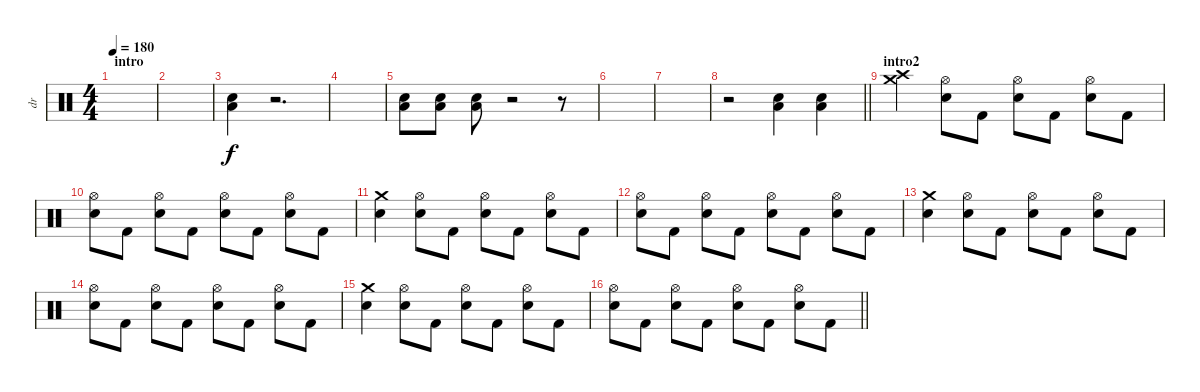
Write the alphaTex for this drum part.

\track ("dr" "dr") {instrument percussion}
\staff {score}
\articulation defaults
\ts (4 4)
\section ("" "intro")
\tempo 180
\clef neutral
\ks c
|
|
("Low Tom (hit)" "Electric Snare (hit)").4 r.2{d} |
|
("Low Tom (hit)" "Electric Snare (hit)").8 ("Low Tom (hit)" "Electric Snare (hit)").8 ("Low Tom (hit)" "Electric Snare (hit)").8 r.2 r.8 |
|
|
\barLineRight lightlight
r.2 ("Low Tom (hit)" "Electric Snare (hit)").4 ("Low Tom (hit)" "Electric Snare (hit)").4 |
\section ("" "intro2")
("Crash high (hit)" "Crash medium (hit)").4 ("Hi-Hat (open)" "Electric Snare (hit)").8 "Kick (hit) 2".8 ("Hi-Hat (open)" "Electric Snare (hit)").8 "Kick (hit) 2".8 ("Hi-Hat (open)" "Electric Snare (hit)").8 "Kick (hit) 2".8 |
("Hi-Hat (open)" "Electric Snare (hit)").8 "Kick (hit) 2".8 ("Hi-Hat (open)" "Electric Snare (hit)").8 "Kick (hit) 2".8 ("Hi-Hat (open)" "Electric Snare (hit)").8 "Kick (hit) 2".8 ("Hi-Hat (open)" "Electric Snare (hit)").8 "Kick (hit) 2".8 |
("Crash medium (hit)" "Electric Snare (hit)").4 ("Hi-Hat (open)" "Electric Snare (hit)").8 "Kick (hit) 2".8 ("Hi-Hat (open)" "Electric Snare (hit)").8 "Kick (hit) 2".8 ("Hi-Hat (open)" "Electric Snare (hit)").8 "Kick (hit) 2".8 |
("Hi-Hat (open)" "Electric Snare (hit)").8 "Kick (hit) 2".8 ("Hi-Hat (open)" "Electric Snare (hit)").8 "Kick (hit) 2".8 ("Hi-Hat (open)" "Electric Snare (hit)").8 "Kick (hit) 2".8 ("Hi-Hat (open)" "Electric Snare (hit)").8 "Kick (hit) 2".8 |
("Crash medium (hit)" "Electric Snare (hit)").4 ("Hi-Hat (open)" "Electric Snare (hit)").8 "Kick (hit) 2".8 ("Hi-Hat (open)" "Electric Snare (hit)").8 "Kick (hit) 2".8 ("Hi-Hat (open)" "Electric Snare (hit)").8 "Kick (hit) 2".8 |
("Hi-Hat (open)" "Electric Snare (hit)").8 "Kick (hit) 2".8 ("Hi-Hat (open)" "Electric Snare (hit)").8 "Kick (hit) 2".8 ("Hi-Hat (open)" "Electric Snare (hit)").8 "Kick (hit) 2".8 ("Hi-Hat (open)" "Electric Snare (hit)").8 "Kick (hit) 2".8 |
("Crash medium (hit)" "Electric Snare (hit)").4 ("Hi-Hat (open)" "Electric Snare (hit)").8 "Kick (hit) 2".8 ("Hi-Hat (open)" "Electric Snare (hit)").8 "Kick (hit) 2".8 ("Hi-Hat (open)" "Electric Snare (hit)").8 "Kick (hit) 2".8 |
\barLineRight lightlight
("Hi-Hat (open)" "Electric Snare (hit)").8 "Kick (hit) 2".8 ("Hi-Hat (open)" "Electric Snare (hit)").8 "Kick (hit) 2".8 ("Hi-Hat (open)" "Electric Snare (hit)").8 "Kick (hit) 2".8 ("Hi-Hat (open)" "Electric Snare (hit)").8 "Kick (hit) 2".8
